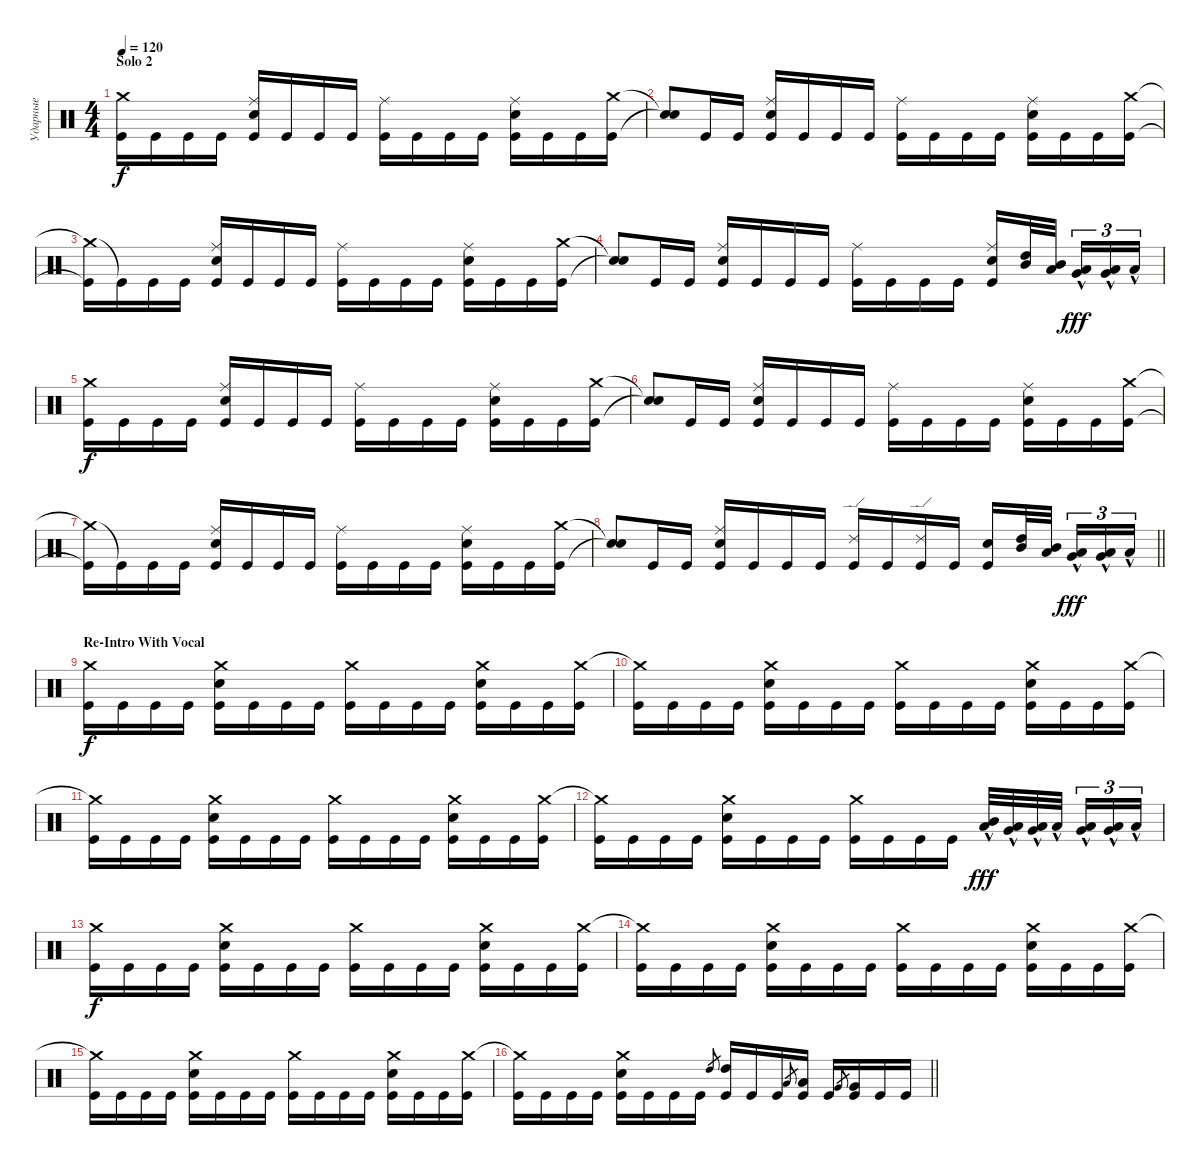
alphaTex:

\track ("Ударные" "Ударные") {instrument percussion}
\staff {score}
\articulation defaults
\ts (4 4)
\section ("" "Solo 2")
\tempo 120
\clef neutral
\ks c
("Crash medium (hit)" "Kick (hit)").16{dy f} "Kick (hit)".16 "Kick (hit)".16 "Kick (hit)".16 ("Ride (middle)" "Electric Snare (hit)" "Kick (hit)").16 "Kick (hit)".16 "Kick (hit)".16 "Kick (hit)".16 ("Ride (middle)" "Kick (hit)").16 "Kick (hit)".16 "Kick (hit)".16 "Kick (hit)".16 ("Ride (middle)" "Electric Snare (hit)" "Kick (hit)").16 "Kick (hit)".16 "Kick (hit)".16 ("Crash medium (hit)" "Kick (hit)").16 |
("Snare (hit)"{t} "Snare (hit)"{t}).8 "Kick (hit)".16 "Kick (hit)".16 ("Ride (middle)" "Electric Snare (hit)" "Kick (hit)").16 "Kick (hit)".16 "Kick (hit)".16 "Kick (hit)".16 ("Ride (middle)" "Kick (hit)").16 "Kick (hit)".16 "Kick (hit)".16 "Kick (hit)".16 ("Ride (middle)" "Electric Snare (hit)" "Kick (hit)").16 "Kick (hit)".16 "Kick (hit)".16 ("Crash medium (hit)" "Kick (hit)").16 |
("Crash medium (hit)"{t} "Kick (hit)"{t}).16 "Kick (hit)"{t}.16 "Kick (hit)".16 "Kick (hit)".16 ("Ride (middle)" "Electric Snare (hit)" "Kick (hit)").16 "Kick (hit)".16 "Kick (hit)".16 "Kick (hit)".16 ("Ride (middle)" "Kick (hit)").16 "Kick (hit)".16 "Kick (hit)".16 "Kick (hit)".16 ("Ride (middle)" "Electric Snare (hit)" "Kick (hit)").16 "Kick (hit)".16 "Kick (hit)".16 ("Crash medium (hit)" "Kick (hit)").16 |
("Snare (hit)"{t} "Snare (hit)"{t}).8 "Kick (hit)".16 "Kick (hit)".16 ("Ride (middle)" "Electric Snare (hit)" "Kick (hit)").16 "Kick (hit)".16 "Kick (hit)".16 "Kick (hit)".16 ("Ride (middle)" "Kick (hit)").16 "Kick (hit)".16 "Kick (hit)".16 "Kick (hit)".16 ("Ride (middle)" "Electric Snare (hit)" "Kick (hit)").16 ("High Tom (hit)" "Mid Tom (hit)").32 ("Mid Tom (hit)" "Low Tom (hit)").32{beam splitsecondary} ("Low Tom (hit)"{hac} "Very Low Tom (hit)"{hac}).16{tu (3 2) dy fff} ("Very Low Tom (hit)"{hac} "Low Floor Tom (hit)"{hac}).16{tu (3 2)} "Low Floor Tom (hit)"{hac}.16{tu (3 2)} |
("Crash medium (hit)" "Kick (hit)").16{dy f} "Kick (hit)".16 "Kick (hit)".16 "Kick (hit)".16 ("Ride (middle)" "Electric Snare (hit)" "Kick (hit)").16 "Kick (hit)".16 "Kick (hit)".16 "Kick (hit)".16 ("Ride (middle)" "Kick (hit)").16 "Kick (hit)".16 "Kick (hit)".16 "Kick (hit)".16 ("Ride (middle)" "Electric Snare (hit)" "Kick (hit)").16 "Kick (hit)".16 "Kick (hit)".16 ("Crash medium (hit)" "Kick (hit)").16 |
("Snare (hit)"{t} "Snare (hit)"{t}).8 "Kick (hit)".16 "Kick (hit)".16 ("Ride (middle)" "Electric Snare (hit)" "Kick (hit)").16 "Kick (hit)".16 "Kick (hit)".16 "Kick (hit)".16 ("Ride (middle)" "Kick (hit)").16 "Kick (hit)".16 "Kick (hit)".16 "Kick (hit)".16 ("Ride (middle)" "Electric Snare (hit)" "Kick (hit)").16 "Kick (hit)".16 "Kick (hit)".16 ("Crash medium (hit)" "Kick (hit)").16 |
("Crash medium (hit)"{t} "Kick (hit)"{t}).16 "Kick (hit)"{t}.16 "Kick (hit)".16 "Kick (hit)".16 ("Ride (middle)" "Electric Snare (hit)" "Kick (hit)").16 "Kick (hit)".16 "Kick (hit)".16 "Kick (hit)".16 ("Ride (middle)" "Kick (hit)").16 "Kick (hit)".16 "Kick (hit)".16 "Kick (hit)".16 ("Ride (middle)" "Electric Snare (hit)" "Kick (hit)").16 "Kick (hit)".16 "Kick (hit)".16 ("Crash medium (hit)" "Kick (hit)").16 |
\barLineRight lightlight
("Snare (hit)"{t} "Snare (hit)"{t}).8 "Kick (hit)".16 "Kick (hit)".16 ("Ride (middle)" "Electric Snare (hit)" "Kick (hit)").16 "Kick (hit)".16 "Kick (hit)".16 "Kick (hit)".16 ("Ride (edge) 2" "Kick (hit)").16 "Kick (hit)".16 ("Ride (edge) 2" "Kick (hit)").16 "Kick (hit)".16 ("Electric Snare (hit)" "Kick (hit)").16 ("High Tom (hit)" "Mid Tom (hit)").32 ("Mid Tom (hit)" "Low Tom (hit)").32{beam splitsecondary} ("Low Tom (hit)"{hac} "Very Low Tom (hit)"{hac}).16{tu (3 2) dy fff} ("Very Low Tom (hit)"{hac} "Low Floor Tom (hit)"{hac}).16{tu (3 2)} "Low Floor Tom (hit)"{hac}.16{tu (3 2)} |
\section ("" "Re-Intro With Vocal")
("Crash medium (hit)" "Kick (hit)").16{dy f} "Kick (hit)".16 "Kick (hit)".16 "Kick (hit)".16 ("Crash medium (hit)" "Electric Snare (hit)" "Kick (hit)").16 "Kick (hit)".16 "Kick (hit)".16 "Kick (hit)".16 ("Crash medium (hit)" "Kick (hit)").16 "Kick (hit)".16 "Kick (hit)".16 "Kick (hit)".16 ("Crash medium (hit)" "Electric Snare (hit)" "Kick (hit)").16 "Kick (hit)".16 "Kick (hit)".16 ("Crash medium (hit)" "Kick (hit)").16 |
("Crash medium (hit)"{t} "Kick (hit)").16 "Kick (hit)".16 "Kick (hit)".16 "Kick (hit)".16 ("Crash medium (hit)" "Electric Snare (hit)" "Kick (hit)").16 "Kick (hit)".16 "Kick (hit)".16 "Kick (hit)".16 ("Crash medium (hit)" "Kick (hit)").16 "Kick (hit)".16 "Kick (hit)".16 "Kick (hit)".16 ("Crash medium (hit)" "Electric Snare (hit)" "Kick (hit)").16 "Kick (hit)".16 "Kick (hit)".16 ("Crash medium (hit)" "Kick (hit)").16 |
("Crash medium (hit)"{t} "Kick (hit)").16 "Kick (hit)".16 "Kick (hit)".16 "Kick (hit)".16 ("Crash medium (hit)" "Electric Snare (hit)" "Kick (hit)").16 "Kick (hit)".16 "Kick (hit)".16 "Kick (hit)".16 ("Crash medium (hit)" "Kick (hit)").16 "Kick (hit)".16 "Kick (hit)".16 "Kick (hit)".16 ("Crash medium (hit)" "Electric Snare (hit)" "Kick (hit)").16 "Kick (hit)".16 "Kick (hit)".16 ("Crash medium (hit)" "Kick (hit)").16 |
("Crash medium (hit)"{t} "Kick (hit)").16 "Kick (hit)".16 "Kick (hit)".16 "Kick (hit)".16 ("Crash medium (hit)" "Electric Snare (hit)" "Kick (hit)").16 "Kick (hit)".16 "Kick (hit)".16 "Kick (hit)".16 ("Crash medium (hit)" "Kick (hit)").16 "Kick (hit)".16 "Kick (hit)".16 "Kick (hit)".16 ("Mid Tom (hit)"{hac} "Low Tom (hit)"{hac}).32{dy fff} ("Low Tom (hit)"{hac} "Very Low Tom (hit)"{hac}).32 ("Very Low Tom (hit)"{hac} "Low Floor Tom (hit)"{hac}).32 "Low Floor Tom (hit)"{hac}.32{beam splitsecondary} ("Low Tom (hit)"{hac} "Very Low Tom (hit)"{hac}).16{tu (3 2)} ("Very Low Tom (hit)"{hac} "Low Floor Tom (hit)"{hac}).16{tu (3 2)} "Low Floor Tom (hit)"{hac}.16{tu (3 2)} |
("Crash medium (hit)" "Kick (hit)").16{dy f} "Kick (hit)".16 "Kick (hit)".16 "Kick (hit)".16 ("Crash medium (hit)" "Electric Snare (hit)" "Kick (hit)").16 "Kick (hit)".16 "Kick (hit)".16 "Kick (hit)".16 ("Crash medium (hit)" "Kick (hit)").16 "Kick (hit)".16 "Kick (hit)".16 "Kick (hit)".16 ("Crash medium (hit)" "Electric Snare (hit)" "Kick (hit)").16 "Kick (hit)".16 "Kick (hit)".16 ("Crash medium (hit)" "Kick (hit)").16 |
("Crash medium (hit)"{t} "Kick (hit)").16 "Kick (hit)".16 "Kick (hit)".16 "Kick (hit)".16 ("Crash medium (hit)" "Electric Snare (hit)" "Kick (hit)").16 "Kick (hit)".16 "Kick (hit)".16 "Kick (hit)".16 ("Crash medium (hit)" "Kick (hit)").16 "Kick (hit)".16 "Kick (hit)".16 "Kick (hit)".16 ("Crash medium (hit)" "Electric Snare (hit)" "Kick (hit)").16 "Kick (hit)".16 "Kick (hit)".16 ("Crash medium (hit)" "Kick (hit)").16 |
("Crash medium (hit)"{t} "Kick (hit)").16 "Kick (hit)".16 "Kick (hit)".16 "Kick (hit)".16 ("Crash medium (hit)" "Electric Snare (hit)" "Kick (hit)").16 "Kick (hit)".16 "Kick (hit)".16 "Kick (hit)".16 ("Crash medium (hit)" "Kick (hit)").16 "Kick (hit)".16 "Kick (hit)".16 "Kick (hit)".16 ("Crash medium (hit)" "Electric Snare (hit)" "Kick (hit)").16 "Kick (hit)".16 "Kick (hit)".16 ("Crash medium (hit)" "Kick (hit)").16 |
\barLineRight lightlight
("Crash medium (hit)"{t} "Kick (hit)").16 "Kick (hit)".16 "Kick (hit)".16 "Kick (hit)".16 ("Crash medium (hit)" "Electric Snare (hit)" "Kick (hit)").16 "Kick (hit)".16 "Kick (hit)".16 "Kick (hit)".16 "High Tom (hit)".8{gr} ("High Tom (hit)" "Kick (hit)").16 "Kick (hit)".16 "Kick (hit)".16 "Low Tom (hit)".8{gr} ("Low Tom (hit)" "Kick (hit)").16 "Kick (hit)".16 "Very Low Tom (hit)".8{gr} ("Very Low Tom (hit)" "Kick (hit)").16 "Kick (hit)".16 "Kick (hit)".16
